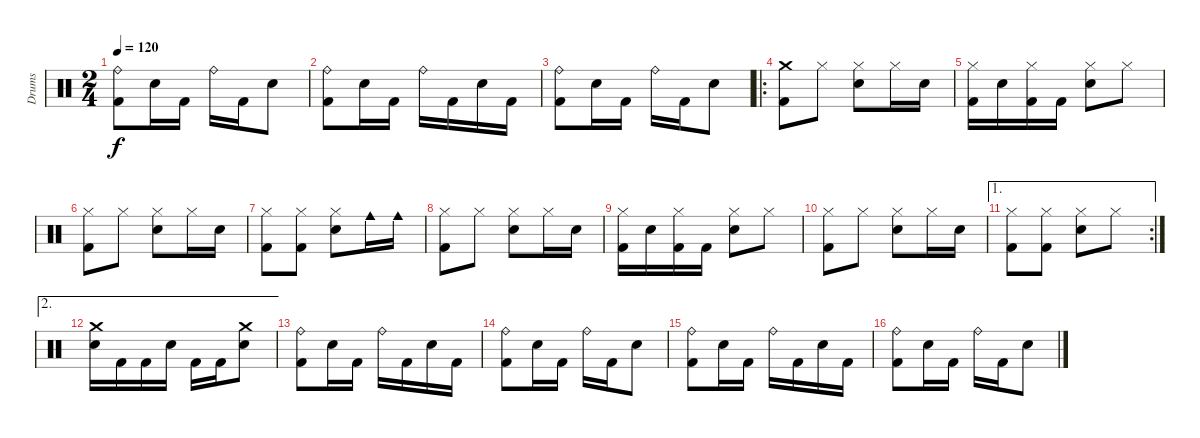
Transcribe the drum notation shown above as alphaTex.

\track ("Drums" "Drums") {instrument percussion}
\staff {score}
\articulation defaults
\ts (2 4)
\tempo 120
\clef neutral
\ks aminor
("Kick (hit) 2" "Ride (bell)").8{dy f} "Electric Snare (hit)".16 "Kick (hit) 2".16 "Ride (bell)".16 "Kick (hit) 2".16 "Electric Snare (hit)".8 |
("Kick (hit) 2" "Ride (bell)").8 "Electric Snare (hit)".16 "Kick (hit) 2".16 "Ride (bell)".16 "Kick (hit) 2".16 "Electric Snare (hit)".16 "Kick (hit) 2".16 |
("Kick (hit) 2" "Ride (bell)").8 "Electric Snare (hit)".16 "Kick (hit) 2".16 "Ride (bell)".16 "Kick (hit) 2".16 "Electric Snare (hit)".8 |
\ro
("Crash medium (hit)" "Kick (hit) 2").8 "Hi-Hat (closed)".8 ("Hi-Hat (closed)" "Electric Snare (hit)").8 "Hi-Hat (closed)".16 "Electric Snare (hit)".16 |
("Kick (hit) 2" "Hi-Hat (closed)").16 "Electric Snare (hit)".16 ("Kick (hit) 2" "Hi-Hat (closed)").16 "Kick (hit) 2".16 ("Electric Snare (hit)" "Hi-Hat (closed)").8 "Hi-Hat (closed)".8 |
("Hi-Hat (closed)" "Kick (hit) 2").8 "Hi-Hat (closed)".8 ("Hi-Hat (closed)" "Electric Snare (hit)").8 "Hi-Hat (closed)".16 "Electric Snare (hit)".16 |
("Kick (hit) 2" "Hi-Hat (closed)").8 ("Kick (hit) 2" "Hi-Hat (closed)").8 ("Electric Snare (hit)" "Hi-Hat (closed)").8 "Cowbell medium (hit)".16 "Cowbell medium (hit)".16 |
("Hi-Hat (closed)" "Kick (hit) 2").8 "Hi-Hat (closed)".8 ("Hi-Hat (closed)" "Electric Snare (hit)").8 "Hi-Hat (closed)".16 "Electric Snare (hit)".16 |
("Kick (hit) 2" "Hi-Hat (closed)").16 "Electric Snare (hit)".16 ("Kick (hit) 2" "Hi-Hat (closed)").16 "Kick (hit) 2".16 ("Electric Snare (hit)" "Hi-Hat (closed)").8 "Hi-Hat (closed)".8 |
("Hi-Hat (closed)" "Kick (hit) 2").8 "Hi-Hat (closed)".8 ("Hi-Hat (closed)" "Electric Snare (hit)").8 "Hi-Hat (closed)".16 "Electric Snare (hit)".16 |
\ae 1
\rc 2
("Kick (hit) 2" "Hi-Hat (closed)").8 ("Kick (hit) 2" "Hi-Hat (closed)").8 ("Electric Snare (hit)" "Hi-Hat (closed)").8 "Hi-Hat (closed)".8 |
\ae 2
("Electric Snare (hit)" "Crash medium (hit)").16 "Kick (hit) 2".16 "Kick (hit) 2".16 "Electric Snare (hit)".16 "Kick (hit) 2".16 "Kick (hit) 2".16 ("Electric Snare (hit)" "Crash medium (hit)").8 |
("Kick (hit) 2" "Ride (bell)").8 "Electric Snare (hit)".16 "Kick (hit) 2".16 "Ride (bell)".16 "Kick (hit) 2".16 "Electric Snare (hit)".16 "Kick (hit) 2".16 |
("Kick (hit) 2" "Ride (bell)").8 "Electric Snare (hit)".16 "Kick (hit) 2".16 "Ride (bell)".16 "Kick (hit) 2".16 "Electric Snare (hit)".8 |
("Kick (hit) 2" "Ride (bell)").8 "Electric Snare (hit)".16 "Kick (hit) 2".16 "Ride (bell)".16 "Kick (hit) 2".16 "Electric Snare (hit)".16 "Kick (hit) 2".16 |
("Kick (hit) 2" "Ride (bell)").8 "Electric Snare (hit)".16 "Kick (hit) 2".16 "Ride (bell)".16 "Kick (hit) 2".16 "Electric Snare (hit)".8
